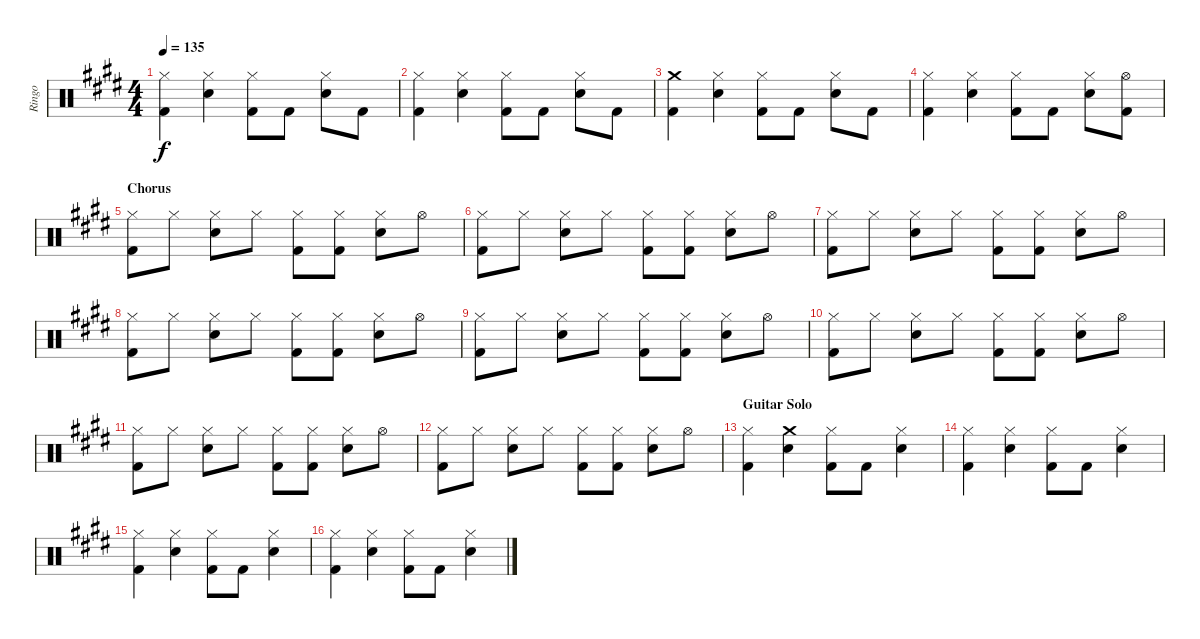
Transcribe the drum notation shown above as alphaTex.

\track ("Ringo" "Ringo") {instrument percussion}
\staff {score}
\articulation defaults
\ts (4 4)
\tempo 135
\clef neutral
\ks e
("Hi-Hat (closed)" "Kick (hit) 2").4{dy f} ("Hi-Hat (closed)" "Snare (hit) 2").4 ("Hi-Hat (closed)" "Kick (hit) 2").8 "Kick (hit) 2".8 ("Hi-Hat (closed)" "Snare (hit) 2").8 "Kick (hit) 2".8 |
("Hi-Hat (closed)" "Kick (hit) 2").4 ("Hi-Hat (closed)" "Snare (hit) 2").4 ("Hi-Hat (closed)" "Kick (hit) 2").8 "Kick (hit) 2".8 ("Hi-Hat (closed)" "Snare (hit) 2").8 "Kick (hit) 2".8 |
("Crash medium (hit)" "Kick (hit) 2").4 ("Hi-Hat (closed)" "Snare (hit) 2").4 ("Hi-Hat (closed)" "Kick (hit) 2").8 "Kick (hit) 2".8 ("Hi-Hat (closed)" "Snare (hit) 2").8 "Kick (hit) 2".8 |
("Hi-Hat (closed)" "Kick (hit) 2").4 ("Hi-Hat (closed)" "Snare (hit) 2").4 ("Hi-Hat (closed)" "Kick (hit) 2").8 "Kick (hit) 2".8 ("Hi-Hat (closed)" "Snare (hit) 2").8 ("Hi-Hat (open)" "Kick (hit) 2").8 |
\section ("" "Chorus")
("Hi-Hat (closed)" "Kick (hit) 2").8 "Hi-Hat (closed)".8 ("Hi-Hat (closed)" "Snare (hit) 2").8 "Hi-Hat (closed)".8 ("Hi-Hat (closed)" "Kick (hit) 2").8 ("Hi-Hat (closed)" "Kick (hit) 2").8 ("Hi-Hat (closed)" "Snare (hit) 2").8 "Hi-Hat (open)".8 |
("Hi-Hat (closed)" "Kick (hit) 2").8 "Hi-Hat (closed)".8 ("Hi-Hat (closed)" "Snare (hit) 2").8 "Hi-Hat (closed)".8 ("Hi-Hat (closed)" "Kick (hit) 2").8 ("Hi-Hat (closed)" "Kick (hit) 2").8 ("Hi-Hat (closed)" "Snare (hit) 2").8 "Hi-Hat (open)".8 |
("Hi-Hat (closed)" "Kick (hit) 2").8 "Hi-Hat (closed)".8 ("Hi-Hat (closed)" "Snare (hit) 2").8 "Hi-Hat (closed)".8 ("Hi-Hat (closed)" "Kick (hit) 2").8 ("Hi-Hat (closed)" "Kick (hit) 2").8 ("Hi-Hat (closed)" "Snare (hit) 2").8 "Hi-Hat (open)".8 |
("Hi-Hat (closed)" "Kick (hit) 2").8 "Hi-Hat (closed)".8 ("Hi-Hat (closed)" "Snare (hit) 2").8 "Hi-Hat (closed)".8 ("Hi-Hat (closed)" "Kick (hit) 2").8 ("Hi-Hat (closed)" "Kick (hit) 2").8 ("Hi-Hat (closed)" "Snare (hit) 2").8 "Hi-Hat (open)".8 |
("Hi-Hat (closed)" "Kick (hit) 2").8 "Hi-Hat (closed)".8 ("Hi-Hat (closed)" "Snare (hit) 2").8 "Hi-Hat (closed)".8 ("Hi-Hat (closed)" "Kick (hit) 2").8 ("Hi-Hat (closed)" "Kick (hit) 2").8 ("Hi-Hat (closed)" "Snare (hit) 2").8 "Hi-Hat (open)".8 |
("Hi-Hat (closed)" "Kick (hit) 2").8 "Hi-Hat (closed)".8 ("Hi-Hat (closed)" "Snare (hit) 2").8 "Hi-Hat (closed)".8 ("Hi-Hat (closed)" "Kick (hit) 2").8 ("Hi-Hat (closed)" "Kick (hit) 2").8 ("Hi-Hat (closed)" "Snare (hit) 2").8 "Hi-Hat (open)".8 |
("Hi-Hat (closed)" "Kick (hit) 2").8 "Hi-Hat (closed)".8 ("Hi-Hat (closed)" "Snare (hit) 2").8 "Hi-Hat (closed)".8 ("Hi-Hat (closed)" "Kick (hit) 2").8 ("Hi-Hat (closed)" "Kick (hit) 2").8 ("Hi-Hat (closed)" "Snare (hit) 2").8 "Hi-Hat (open)".8 |
("Hi-Hat (closed)" "Kick (hit) 2").8 "Hi-Hat (closed)".8 ("Hi-Hat (closed)" "Snare (hit) 2").8 "Hi-Hat (closed)".8 ("Hi-Hat (closed)" "Kick (hit) 2").8 ("Hi-Hat (closed)" "Kick (hit) 2").8 ("Hi-Hat (closed)" "Snare (hit) 2").8 "Hi-Hat (open)".8 |
\section ("" "Guitar Solo")
("Hi-Hat (closed)" "Kick (hit) 2").4 ("Crash medium (hit)" "Snare (hit) 2").4 ("Hi-Hat (closed)" "Kick (hit) 2").8 "Kick (hit) 2".8 ("Hi-Hat (closed)" "Snare (hit) 2").4 |
("Hi-Hat (closed)" "Kick (hit) 2").4 ("Hi-Hat (closed)" "Snare (hit) 2").4 ("Hi-Hat (closed)" "Kick (hit) 2").8 "Kick (hit) 2".8 ("Hi-Hat (closed)" "Snare (hit) 2").4 |
("Hi-Hat (closed)" "Kick (hit) 2").4 ("Hi-Hat (closed)" "Snare (hit) 2").4 ("Hi-Hat (closed)" "Kick (hit) 2").8 "Kick (hit) 2".8 ("Hi-Hat (closed)" "Snare (hit) 2").4 |
("Hi-Hat (closed)" "Kick (hit) 2").4 ("Hi-Hat (closed)" "Snare (hit) 2").4 ("Hi-Hat (closed)" "Kick (hit) 2").8 "Kick (hit) 2".8 ("Hi-Hat (closed)" "Snare (hit) 2").4
